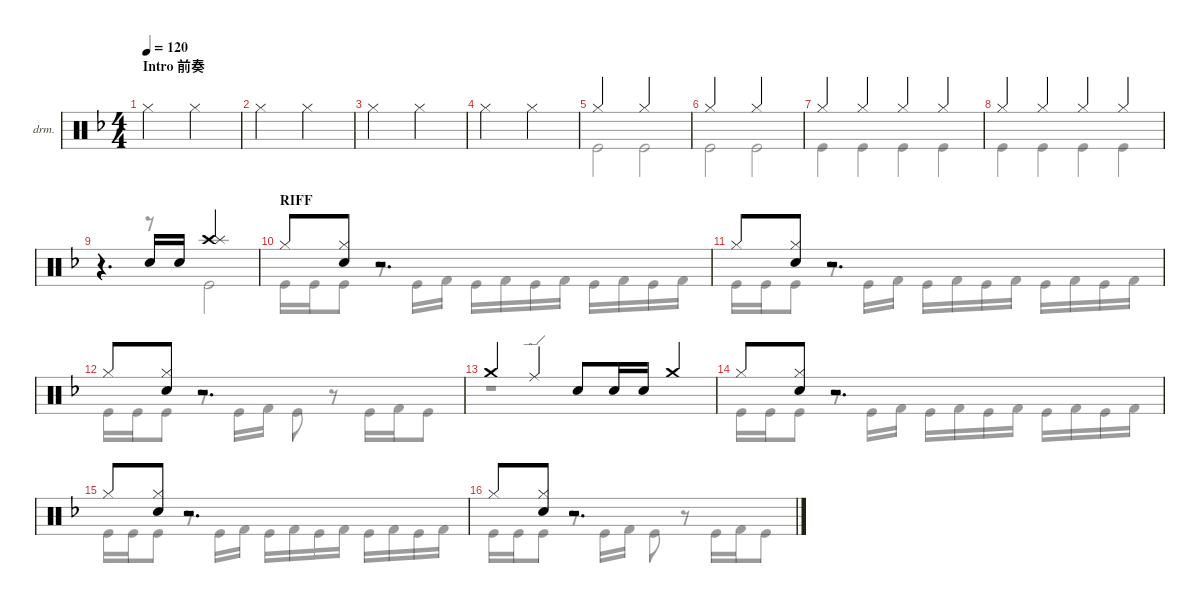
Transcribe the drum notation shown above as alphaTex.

\defaultSystemsLayout 4
\hideDynamics
\bracketExtendMode nobrackets
\firstSystemTrackNameOrientation horizontal
\track ("Drumkit" "drm.") {mute instrument percussion}
\staff {score}
\articulation defaults
\voice
\ts (4 4)
\section ("" "Intro 前奏")
\tempo 120
\clef neutral
\ks dminor "Hi-Hat (closed)"{acc forcenatural}.2{dy mf} "Hi-Hat (closed)"{acc forcenatural}.2
|
"Hi-Hat (closed)"{acc forcenatural}.2 "Hi-Hat (closed)"{acc forcenatural}.2 |
"Hi-Hat (closed)"{acc forcenatural}.2 "Hi-Hat (closed)"{acc forcenatural}.2 |
"Hi-Hat (closed)"{acc forcenatural}.2 "Hi-Hat (closed)"{acc forcenatural}.2 |
"Hi-Hat (closed)"{acc forcenatural}.2 "Hi-Hat (closed)"{acc forcenatural}.2 |
"Hi-Hat (closed)"{acc forcenatural}.2 "Hi-Hat (closed)"{acc forcenatural}.2 |
"Hi-Hat (closed)"{acc forcenatural}.4 "Hi-Hat (closed)"{acc forcenatural}.4 "Hi-Hat (closed)"{acc forcenatural}.4 "Hi-Hat (closed)"{acc forcenatural}.4 |
"Hi-Hat (closed)"{acc forcenatural}.4 "Hi-Hat (closed)"{acc forcenatural}.4 "Hi-Hat (closed)"{acc forcenatural}.4 "Hi-Hat (closed)"{acc forcenatural}.4 |
r.4{d} "Snare (hit) 2"{acc forcenatural}.16 "Snare (hit) 2"{acc forcenatural}.16 ("Crash high (hit)"{acc forcenatural} "Splash (hit)"{acc forcenatural}).2 |
\section ("" "RIFF")
"Hi-Hat (closed)"{acc forcenatural}.8 ("Hi-Hat (closed)"{acc forcenatural} "Snare (hit) 2"{acc forcenatural}).8 r.2{d} |
"Hi-Hat (closed)"{acc forcenatural}.8 ("Hi-Hat (closed)"{acc forcenatural} "Snare (hit) 2"{acc forcenatural}).8 r.2{d} |
"Hi-Hat (closed)"{acc forcenatural}.8 ("Hi-Hat (closed)"{acc forcenatural} "Snare (hit) 2"{acc forcenatural}).8 r.2{d} |
"Crash medium (hit)"{acc forcenatural}.4 "Ride (edge)"{acc forcenatural}.4 "Snare (hit) 2"{acc forcenatural}.8 "Snare (hit) 2"{acc forcenatural}.16 "Snare (hit) 2"{acc forcenatural}.16 "Crash medium (hit)"{acc forcenatural}.4 |
"Hi-Hat (closed)"{acc forcenatural}.8 ("Hi-Hat (closed)"{acc forcenatural} "Snare (hit) 2"{acc forcenatural}).8 r.2{d} |
"Hi-Hat (closed)"{acc forcenatural}.8 ("Hi-Hat (closed)"{acc forcenatural} "Snare (hit) 2"{acc forcenatural}).8 r.2{d} |
"Hi-Hat (closed)"{acc forcenatural}.8 ("Hi-Hat (closed)"{acc forcenatural} "Snare (hit) 2"{acc forcenatural}).8 r.2{d}
\voice
\clef neutral
\ottava regular
\simile none
\ks dminor
|
|
|
|
"Kick (hit)"{acc forcenatural}.2 "Kick (hit)"{acc forcenatural}.2 |
"Kick (hit)"{acc forcenatural}.2 "Kick (hit)"{acc forcenatural}.2 |
"Kick (hit)"{acc forcenatural}.4 "Kick (hit)"{acc forcenatural}.4 "Kick (hit)"{acc forcenatural}.4 "Kick (hit)"{acc forcenatural}.4 |
"Kick (hit)"{acc forcenatural}.4 "Kick (hit)"{acc forcenatural}.4 "Kick (hit)"{acc forcenatural}.4 "Kick (hit)"{acc forcenatural}.4 |
r.4{d} r.8 "Kick (hit)"{acc forcenatural}.2 |
"Kick (hit)"{acc forcenatural}.16 "Kick (hit)"{acc forcenatural}.16 "Kick (hit)"{acc forcenatural}.8 r.8 "Kick (hit)"{acc forcenatural}.16 "Kick (hit) 2"{acc forcenatural}.16 "Kick (hit)"{acc forcenatural}.16 "Kick (hit) 2"{acc forcenatural}.16 "Kick (hit)"{acc forcenatural}.16 "Kick (hit) 2"{acc forcenatural}.16 "Kick (hit)"{acc forcenatural}.16 "Kick (hit) 2"{acc forcenatural}.16 "Kick (hit)"{acc forcenatural}.16 "Kick (hit) 2"{acc forcenatural}.16 |
"Kick (hit)"{acc forcenatural}.16 "Kick (hit)"{acc forcenatural}.16 "Kick (hit)"{acc forcenatural}.8 r.8 "Kick (hit)"{acc forcenatural}.16 "Kick (hit) 2"{acc forcenatural}.16 "Kick (hit)"{acc forcenatural}.16 "Kick (hit) 2"{acc forcenatural}.16 "Kick (hit)"{acc forcenatural}.16 "Kick (hit) 2"{acc forcenatural}.16 "Kick (hit)"{acc forcenatural}.16 "Kick (hit) 2"{acc forcenatural}.16 "Kick (hit)"{acc forcenatural}.16 "Kick (hit) 2"{acc forcenatural}.16 |
"Kick (hit)"{acc forcenatural}.16 "Kick (hit)"{acc forcenatural}.16 "Kick (hit)"{acc forcenatural}.8 r.8 "Kick (hit)"{acc forcenatural}.16 "Kick (hit) 2"{acc forcenatural}.16 "Kick (hit)"{acc forcenatural}.8 r.8 "Kick (hit)"{acc forcenatural}.16 "Kick (hit) 2"{acc forcenatural}.16 "Kick (hit)"{acc forcenatural}.8 |
r.1 |
"Kick (hit)"{acc forcenatural}.16 "Kick (hit)"{acc forcenatural}.16 "Kick (hit)"{acc forcenatural}.8 r.8 "Kick (hit)"{acc forcenatural}.16 "Kick (hit) 2"{acc forcenatural}.16 "Kick (hit)"{acc forcenatural}.16 "Kick (hit) 2"{acc forcenatural}.16 "Kick (hit)"{acc forcenatural}.16 "Kick (hit) 2"{acc forcenatural}.16 "Kick (hit)"{acc forcenatural}.16 "Kick (hit) 2"{acc forcenatural}.16 "Kick (hit)"{acc forcenatural}.16 "Kick (hit) 2"{acc forcenatural}.16 |
"Kick (hit)"{acc forcenatural}.16 "Kick (hit)"{acc forcenatural}.16 "Kick (hit)"{acc forcenatural}.8 r.8 "Kick (hit)"{acc forcenatural}.16 "Kick (hit) 2"{acc forcenatural}.16 "Kick (hit)"{acc forcenatural}.16 "Kick (hit) 2"{acc forcenatural}.16 "Kick (hit)"{acc forcenatural}.16 "Kick (hit) 2"{acc forcenatural}.16 "Kick (hit)"{acc forcenatural}.16 "Kick (hit) 2"{acc forcenatural}.16 "Kick (hit)"{acc forcenatural}.16 "Kick (hit) 2"{acc forcenatural}.16 |
"Kick (hit)"{acc forcenatural}.16 "Kick (hit)"{acc forcenatural}.16 "Kick (hit)"{acc forcenatural}.8 r.8 "Kick (hit)"{acc forcenatural}.16 "Kick (hit) 2"{acc forcenatural}.16 "Kick (hit)"{acc forcenatural}.8 r.8 "Kick (hit)"{acc forcenatural}.16 "Kick (hit) 2"{acc forcenatural}.16 "Kick (hit)"{acc forcenatural}.8
